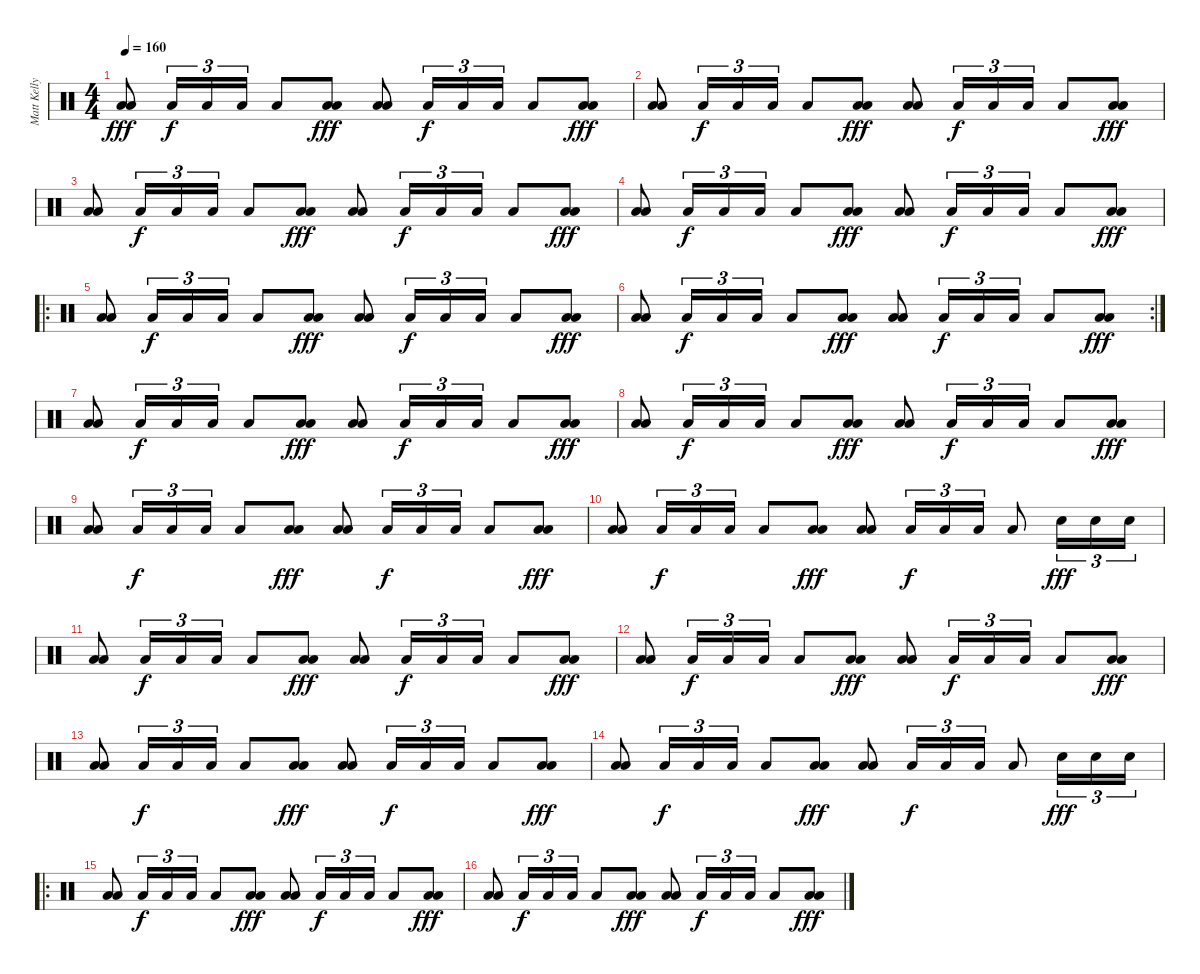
\track ("Matt Kelly" "Matt Kelly") {instrument percussion}
\staff {score}
\articulation defaults
\ts (4 4)
\tempo 160
\clef neutral
\ks c
("Low Floor Tom (hit)" "Low Floor Tom (hit)").8{dy fff} "Low Floor Tom (hit)".16{tu (3 2) dy f} "Low Floor Tom (hit)".16{tu (3 2)} "Low Floor Tom (hit)".16{tu (3 2)} "Low Floor Tom (hit)".8 ("Low Floor Tom (hit)" "Low Floor Tom (hit)").8{dy fff} ("Low Floor Tom (hit)" "Low Floor Tom (hit)").8 "Low Floor Tom (hit)".16{tu (3 2) dy f} "Low Floor Tom (hit)".16{tu (3 2)} "Low Floor Tom (hit)".16{tu (3 2)} "Low Floor Tom (hit)".8 ("Low Floor Tom (hit)" "Low Floor Tom (hit)").8{dy fff} |
("Low Floor Tom (hit)" "Low Floor Tom (hit)").8 "Low Floor Tom (hit)".16{tu (3 2) dy f} "Low Floor Tom (hit)".16{tu (3 2)} "Low Floor Tom (hit)".16{tu (3 2)} "Low Floor Tom (hit)".8 ("Low Floor Tom (hit)" "Low Floor Tom (hit)").8{dy fff} ("Low Floor Tom (hit)" "Low Floor Tom (hit)").8 "Low Floor Tom (hit)".16{tu (3 2) dy f} "Low Floor Tom (hit)".16{tu (3 2)} "Low Floor Tom (hit)".16{tu (3 2)} "Low Floor Tom (hit)".8 ("Low Floor Tom (hit)" "Low Floor Tom (hit)").8{dy fff} |
("Low Floor Tom (hit)" "Low Floor Tom (hit)").8 "Low Floor Tom (hit)".16{tu (3 2) dy f} "Low Floor Tom (hit)".16{tu (3 2)} "Low Floor Tom (hit)".16{tu (3 2)} "Low Floor Tom (hit)".8 ("Low Floor Tom (hit)" "Low Floor Tom (hit)").8{dy fff} ("Low Floor Tom (hit)" "Low Floor Tom (hit)").8 "Low Floor Tom (hit)".16{tu (3 2) dy f} "Low Floor Tom (hit)".16{tu (3 2)} "Low Floor Tom (hit)".16{tu (3 2)} "Low Floor Tom (hit)".8 ("Low Floor Tom (hit)" "Low Floor Tom (hit)").8{dy fff} |
("Low Floor Tom (hit)" "Low Floor Tom (hit)").8 "Low Floor Tom (hit)".16{tu (3 2) dy f} "Low Floor Tom (hit)".16{tu (3 2)} "Low Floor Tom (hit)".16{tu (3 2)} "Low Floor Tom (hit)".8 ("Low Floor Tom (hit)" "Low Floor Tom (hit)").8{dy fff} ("Low Floor Tom (hit)" "Low Floor Tom (hit)").8 "Low Floor Tom (hit)".16{tu (3 2) dy f} "Low Floor Tom (hit)".16{tu (3 2)} "Low Floor Tom (hit)".16{tu (3 2)} "Low Floor Tom (hit)".8 ("Low Floor Tom (hit)" "Low Floor Tom (hit)").8{dy fff} |
\ro
("Low Floor Tom (hit)" "Low Floor Tom (hit)").8 "Low Floor Tom (hit)".16{tu (3 2) dy f} "Low Floor Tom (hit)".16{tu (3 2)} "Low Floor Tom (hit)".16{tu (3 2)} "Low Floor Tom (hit)".8 ("Low Floor Tom (hit)" "Low Floor Tom (hit)").8{dy fff} ("Low Floor Tom (hit)" "Low Floor Tom (hit)").8 "Low Floor Tom (hit)".16{tu (3 2) dy f} "Low Floor Tom (hit)".16{tu (3 2)} "Low Floor Tom (hit)".16{tu (3 2)} "Low Floor Tom (hit)".8 ("Low Floor Tom (hit)" "Low Floor Tom (hit)").8{dy fff} |
\rc 2
("Low Floor Tom (hit)" "Low Floor Tom (hit)").8 "Low Floor Tom (hit)".16{tu (3 2) dy f} "Low Floor Tom (hit)".16{tu (3 2)} "Low Floor Tom (hit)".16{tu (3 2)} "Low Floor Tom (hit)".8 ("Low Floor Tom (hit)" "Low Floor Tom (hit)").8{dy fff} ("Low Floor Tom (hit)" "Low Floor Tom (hit)").8 "Low Floor Tom (hit)".16{tu (3 2) dy f} "Low Floor Tom (hit)".16{tu (3 2)} "Low Floor Tom (hit)".16{tu (3 2)} "Low Floor Tom (hit)".8 ("Low Floor Tom (hit)" "Low Floor Tom (hit)").8{dy fff} |
("Low Floor Tom (hit)" "Low Floor Tom (hit)").8 "Low Floor Tom (hit)".16{tu (3 2) dy f} "Low Floor Tom (hit)".16{tu (3 2)} "Low Floor Tom (hit)".16{tu (3 2)} "Low Floor Tom (hit)".8 ("Low Floor Tom (hit)" "Low Floor Tom (hit)").8{dy fff} ("Low Floor Tom (hit)" "Low Floor Tom (hit)").8 "Low Floor Tom (hit)".16{tu (3 2) dy f} "Low Floor Tom (hit)".16{tu (3 2)} "Low Floor Tom (hit)".16{tu (3 2)} "Low Floor Tom (hit)".8 ("Low Floor Tom (hit)" "Low Floor Tom (hit)").8{dy fff} |
("Low Floor Tom (hit)" "Low Floor Tom (hit)").8 "Low Floor Tom (hit)".16{tu (3 2) dy f} "Low Floor Tom (hit)".16{tu (3 2)} "Low Floor Tom (hit)".16{tu (3 2)} "Low Floor Tom (hit)".8 ("Low Floor Tom (hit)" "Low Floor Tom (hit)").8{dy fff} ("Low Floor Tom (hit)" "Low Floor Tom (hit)").8 "Low Floor Tom (hit)".16{tu (3 2) dy f} "Low Floor Tom (hit)".16{tu (3 2)} "Low Floor Tom (hit)".16{tu (3 2)} "Low Floor Tom (hit)".8 ("Low Floor Tom (hit)" "Low Floor Tom (hit)").8{dy fff} |
("Low Floor Tom (hit)" "Low Floor Tom (hit)").8 "Low Floor Tom (hit)".16{tu (3 2) dy f} "Low Floor Tom (hit)".16{tu (3 2)} "Low Floor Tom (hit)".16{tu (3 2)} "Low Floor Tom (hit)".8 ("Low Floor Tom (hit)" "Low Floor Tom (hit)").8{dy fff} ("Low Floor Tom (hit)" "Low Floor Tom (hit)").8 "Low Floor Tom (hit)".16{tu (3 2) dy f} "Low Floor Tom (hit)".16{tu (3 2)} "Low Floor Tom (hit)".16{tu (3 2)} "Low Floor Tom (hit)".8 ("Low Floor Tom (hit)" "Low Floor Tom (hit)").8{dy fff} |
("Low Floor Tom (hit)" "Low Floor Tom (hit)").8 "Low Floor Tom (hit)".16{tu (3 2) dy f} "Low Floor Tom (hit)".16{tu (3 2)} "Low Floor Tom (hit)".16{tu (3 2)} "Low Floor Tom (hit)".8 ("Low Floor Tom (hit)" "Low Floor Tom (hit)").8{dy fff} ("Low Floor Tom (hit)" "Low Floor Tom (hit)").8 "Low Floor Tom (hit)".16{tu (3 2) dy f} "Low Floor Tom (hit)".16{tu (3 2)} "Low Floor Tom (hit)".16{tu (3 2)} "Low Floor Tom (hit)".8 "Snare (hit) 2".16{tu (3 2) dy fff} "Snare (hit) 2".16{tu (3 2)} "Snare (hit) 2".16{tu (3 2)} |
("Low Floor Tom (hit)" "Low Floor Tom (hit)").8 "Low Floor Tom (hit)".16{tu (3 2) dy f} "Low Floor Tom (hit)".16{tu (3 2)} "Low Floor Tom (hit)".16{tu (3 2)} "Low Floor Tom (hit)".8 ("Low Floor Tom (hit)" "Low Floor Tom (hit)").8{dy fff} ("Low Floor Tom (hit)" "Low Floor Tom (hit)").8 "Low Floor Tom (hit)".16{tu (3 2) dy f} "Low Floor Tom (hit)".16{tu (3 2)} "Low Floor Tom (hit)".16{tu (3 2)} "Low Floor Tom (hit)".8 ("Low Floor Tom (hit)" "Low Floor Tom (hit)").8{dy fff} |
("Low Floor Tom (hit)" "Low Floor Tom (hit)").8 "Low Floor Tom (hit)".16{tu (3 2) dy f} "Low Floor Tom (hit)".16{tu (3 2)} "Low Floor Tom (hit)".16{tu (3 2)} "Low Floor Tom (hit)".8 ("Low Floor Tom (hit)" "Low Floor Tom (hit)").8{dy fff} ("Low Floor Tom (hit)" "Low Floor Tom (hit)").8 "Low Floor Tom (hit)".16{tu (3 2) dy f} "Low Floor Tom (hit)".16{tu (3 2)} "Low Floor Tom (hit)".16{tu (3 2)} "Low Floor Tom (hit)".8 ("Low Floor Tom (hit)" "Low Floor Tom (hit)").8{dy fff} |
("Low Floor Tom (hit)" "Low Floor Tom (hit)").8 "Low Floor Tom (hit)".16{tu (3 2) dy f} "Low Floor Tom (hit)".16{tu (3 2)} "Low Floor Tom (hit)".16{tu (3 2)} "Low Floor Tom (hit)".8 ("Low Floor Tom (hit)" "Low Floor Tom (hit)").8{dy fff} ("Low Floor Tom (hit)" "Low Floor Tom (hit)").8 "Low Floor Tom (hit)".16{tu (3 2) dy f} "Low Floor Tom (hit)".16{tu (3 2)} "Low Floor Tom (hit)".16{tu (3 2)} "Low Floor Tom (hit)".8 ("Low Floor Tom (hit)" "Low Floor Tom (hit)").8{dy fff} |
("Low Floor Tom (hit)" "Low Floor Tom (hit)").8 "Low Floor Tom (hit)".16{tu (3 2) dy f} "Low Floor Tom (hit)".16{tu (3 2)} "Low Floor Tom (hit)".16{tu (3 2)} "Low Floor Tom (hit)".8 ("Low Floor Tom (hit)" "Low Floor Tom (hit)").8{dy fff} ("Low Floor Tom (hit)" "Low Floor Tom (hit)").8 "Low Floor Tom (hit)".16{tu (3 2) dy f} "Low Floor Tom (hit)".16{tu (3 2)} "Low Floor Tom (hit)".16{tu (3 2)} "Low Floor Tom (hit)".8 "Snare (hit) 2".16{tu (3 2) dy fff} "Snare (hit) 2".16{tu (3 2)} "Snare (hit) 2".16{tu (3 2)} |
\ro
("Low Floor Tom (hit)" "Low Floor Tom (hit)").8 "Low Floor Tom (hit)".16{tu (3 2) dy f} "Low Floor Tom (hit)".16{tu (3 2)} "Low Floor Tom (hit)".16{tu (3 2)} "Low Floor Tom (hit)".8 ("Low Floor Tom (hit)" "Low Floor Tom (hit)").8{dy fff} ("Low Floor Tom (hit)" "Low Floor Tom (hit)").8 "Low Floor Tom (hit)".16{tu (3 2) dy f} "Low Floor Tom (hit)".16{tu (3 2)} "Low Floor Tom (hit)".16{tu (3 2)} "Low Floor Tom (hit)".8 ("Low Floor Tom (hit)" "Low Floor Tom (hit)").8{dy fff} |
("Low Floor Tom (hit)" "Low Floor Tom (hit)").8 "Low Floor Tom (hit)".16{tu (3 2) dy f} "Low Floor Tom (hit)".16{tu (3 2)} "Low Floor Tom (hit)".16{tu (3 2)} "Low Floor Tom (hit)".8 ("Low Floor Tom (hit)" "Low Floor Tom (hit)").8{dy fff} ("Low Floor Tom (hit)" "Low Floor Tom (hit)").8 "Low Floor Tom (hit)".16{tu (3 2) dy f} "Low Floor Tom (hit)".16{tu (3 2)} "Low Floor Tom (hit)".16{tu (3 2)} "Low Floor Tom (hit)".8 ("Low Floor Tom (hit)" "Low Floor Tom (hit)").8{dy fff}
